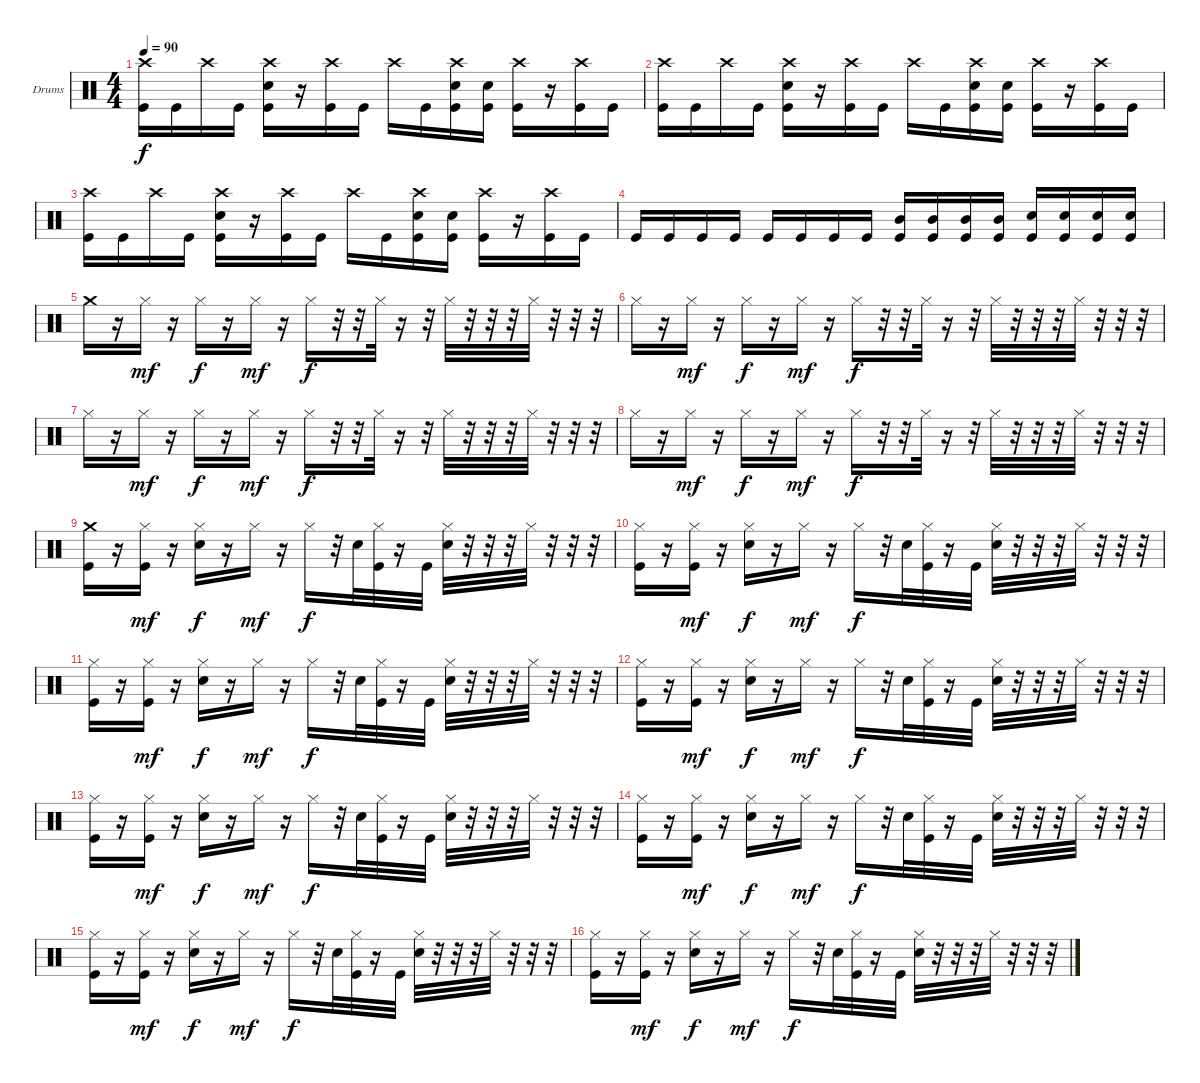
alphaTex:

\bracketExtendMode groupsimilarinstruments
\firstSystemTrackNameOrientation horizontal
\otherSystemsTrackNameOrientation horizontal
\track ("Ударная установка" "Drums") {instrument percussion}
\staff {score}
\articulation defaults
\ts (4 4)
\tempo 90
\clef neutral
\ks c
("Crash high (hit)" "Kick (hit)").16{dy f} "Kick (hit)".16 "Crash high (hit)".16 "Kick (hit)".16 ("Crash high (hit)" "Snare (hit) 2" "Kick (hit)").16 r.16 ("Crash high (hit)" "Kick (hit)").16 "Kick (hit)".16 "Crash high (hit)".16 "Kick (hit)".16 ("Crash high (hit)" "Kick (hit)" "Snare (hit) 2").16 ("Kick (hit)" "Snare (hit) 2").16 ("Crash high (hit)" "Kick (hit)").16 r.16 ("Crash high (hit)" "Kick (hit)").16 "Kick (hit)".16 |
("Crash high (hit)" "Kick (hit)").16 "Kick (hit)".16 "Crash high (hit)".16 "Kick (hit)".16 ("Crash high (hit)" "Snare (hit) 2" "Kick (hit)").16 r.16 ("Crash high (hit)" "Kick (hit)").16 "Kick (hit)".16 "Crash high (hit)".16 "Kick (hit)".16 ("Crash high (hit)" "Kick (hit)" "Snare (hit) 2").16 ("Kick (hit)" "Snare (hit) 2").16 ("Crash high (hit)" "Kick (hit)").16 r.16 ("Crash high (hit)" "Kick (hit)").16 "Kick (hit)".16 |
("Crash high (hit)" "Kick (hit)").16 "Kick (hit)".16 "Crash high (hit)".16 "Kick (hit)".16 ("Crash high (hit)" "Snare (hit) 2" "Kick (hit)").16 r.16 ("Crash high (hit)" "Kick (hit)").16 "Kick (hit)".16 "Crash high (hit)".16 "Kick (hit)".16 ("Crash high (hit)" "Kick (hit)" "Snare (hit) 2").16 ("Kick (hit)" "Snare (hit) 2").16 ("Crash high (hit)" "Kick (hit)").16 r.16 ("Crash high (hit)" "Kick (hit)").16 "Kick (hit)".16 |
"Kick (hit)".16 "Kick (hit)".16 "Kick (hit)".16 "Kick (hit)".16 "Kick (hit)".16 "Kick (hit)".16 "Kick (hit)".16 "Kick (hit)".16 ("Kick (hit)" "Mid Tom (hit)").16 ("Kick (hit)" "Mid Tom (hit)").16 ("Kick (hit)" "Mid Tom (hit)").16 ("Kick (hit)" "Mid Tom (hit)").16 ("Snare (hit) 2" "Kick (hit)").16 ("Kick (hit)" "Snare (hit) 2").16 ("Kick (hit)" "Snare (hit) 2").16 ("Kick (hit)" "Snare (hit) 2").16 |
"Crash medium (hit)".16 r.16 "Hi-Hat (closed)".16{dy mf} r.16 "Hi-Hat (closed)".16{dy f} r.16 "Hi-Hat (closed)".16{dy mf} r.16 "Hi-Hat (closed)".16{dy f} r.32 r.32 "Hi-Hat (closed)".32 r.16 r.32 "Hi-Hat (closed)".32 r.32 r.32 r.32 "Hi-Hat (closed)".32 r.32 r.32 r.32 |
"Hi-Hat (closed)".16 r.16 "Hi-Hat (closed)".16{dy mf} r.16 "Hi-Hat (closed)".16{dy f} r.16 "Hi-Hat (closed)".16{dy mf} r.16 "Hi-Hat (closed)".16{dy f} r.32 r.32 "Hi-Hat (closed)".32 r.16 r.32 "Hi-Hat (closed)".32 r.32 r.32 r.32 "Hi-Hat (closed)".32 r.32 r.32 r.32 |
"Hi-Hat (closed)".16 r.16 "Hi-Hat (closed)".16{dy mf} r.16 "Hi-Hat (closed)".16{dy f} r.16 "Hi-Hat (closed)".16{dy mf} r.16 "Hi-Hat (closed)".16{dy f} r.32 r.32 "Hi-Hat (closed)".32 r.16 r.32 "Hi-Hat (closed)".32 r.32 r.32 r.32 "Hi-Hat (closed)".32 r.32 r.32 r.32 |
"Hi-Hat (closed)".16 r.16 "Hi-Hat (closed)".16{dy mf} r.16 "Hi-Hat (closed)".16{dy f} r.16 "Hi-Hat (closed)".16{dy mf} r.16 "Hi-Hat (closed)".16{dy f} r.32 r.32 "Hi-Hat (closed)".32 r.16 r.32 "Hi-Hat (closed)".32 r.32 r.32 r.32 "Hi-Hat (closed)".32 r.32 r.32 r.32 |
("Crash medium (hit)" "Kick (hit)").16 r.16 ("Kick (hit)" "Hi-Hat (closed)").16{dy mf} r.16 ("Snare (hit) 2" "Hi-Hat (closed)").16{dy f} r.16 "Hi-Hat (closed)".16{dy mf} r.16 "Hi-Hat (closed)".16{dy f} r.32 "Snare (hit) 2".32 ("Kick (hit)" "Hi-Hat (closed)").32 r.16 "Kick (hit)".32 ("Snare (hit) 2" "Hi-Hat (closed)").32 r.32 r.32 r.32 "Hi-Hat (closed)".32 r.32 r.32 r.32 |
("Kick (hit)" "Hi-Hat (closed)").16 r.16 ("Kick (hit)" "Hi-Hat (closed)").16{dy mf} r.16 ("Snare (hit) 2" "Hi-Hat (closed)").16{dy f} r.16 "Hi-Hat (closed)".16{dy mf} r.16 "Hi-Hat (closed)".16{dy f} r.32 "Snare (hit) 2".32 ("Kick (hit)" "Hi-Hat (closed)").32 r.16 "Kick (hit)".32 ("Snare (hit) 2" "Hi-Hat (closed)").32 r.32 r.32 r.32 "Hi-Hat (closed)".32 r.32 r.32 r.32 |
("Kick (hit)" "Hi-Hat (closed)").16 r.16 ("Kick (hit)" "Hi-Hat (closed)").16{dy mf} r.16 ("Snare (hit) 2" "Hi-Hat (closed)").16{dy f} r.16 "Hi-Hat (closed)".16{dy mf} r.16 "Hi-Hat (closed)".16{dy f} r.32 "Snare (hit) 2".32 ("Kick (hit)" "Hi-Hat (closed)").32 r.16 "Kick (hit)".32 ("Snare (hit) 2" "Hi-Hat (closed)").32 r.32 r.32 r.32 "Hi-Hat (closed)".32 r.32 r.32 r.32 |
("Kick (hit)" "Hi-Hat (closed)").16 r.16 ("Kick (hit)" "Hi-Hat (closed)").16{dy mf} r.16 ("Snare (hit) 2" "Hi-Hat (closed)").16{dy f} r.16 "Hi-Hat (closed)".16{dy mf} r.16 "Hi-Hat (closed)".16{dy f} r.32 "Snare (hit) 2".32 ("Kick (hit)" "Hi-Hat (closed)").32 r.16 "Kick (hit)".32 ("Snare (hit) 2" "Hi-Hat (closed)").32 r.32 r.32 r.32 "Hi-Hat (closed)".32 r.32 r.32 r.32 |
("Kick (hit)" "Hi-Hat (closed)").16 r.16 ("Kick (hit)" "Hi-Hat (closed)").16{dy mf} r.16 ("Snare (hit) 2" "Hi-Hat (closed)").16{dy f} r.16 "Hi-Hat (closed)".16{dy mf} r.16 "Hi-Hat (closed)".16{dy f} r.32 "Snare (hit) 2".32 ("Kick (hit)" "Hi-Hat (closed)").32 r.16 "Kick (hit)".32 ("Snare (hit) 2" "Hi-Hat (closed)").32 r.32 r.32 r.32 "Hi-Hat (closed)".32 r.32 r.32 r.32 |
("Kick (hit)" "Hi-Hat (closed)").16 r.16 ("Kick (hit)" "Hi-Hat (closed)").16{dy mf} r.16 ("Snare (hit) 2" "Hi-Hat (closed)").16{dy f} r.16 "Hi-Hat (closed)".16{dy mf} r.16 "Hi-Hat (closed)".16{dy f} r.32 "Snare (hit) 2".32 ("Kick (hit)" "Hi-Hat (closed)").32 r.16 "Kick (hit)".32 ("Snare (hit) 2" "Hi-Hat (closed)").32 r.32 r.32 r.32 "Hi-Hat (closed)".32 r.32 r.32 r.32 |
("Kick (hit)" "Hi-Hat (closed)").16 r.16 ("Kick (hit)" "Hi-Hat (closed)").16{dy mf} r.16 ("Snare (hit) 2" "Hi-Hat (closed)").16{dy f} r.16 "Hi-Hat (closed)".16{dy mf} r.16 "Hi-Hat (closed)".16{dy f} r.32 "Snare (hit) 2".32 ("Kick (hit)" "Hi-Hat (closed)").32 r.16 "Kick (hit)".32 ("Snare (hit) 2" "Hi-Hat (closed)").32 r.32 r.32 r.32 "Hi-Hat (closed)".32 r.32 r.32 r.32 |
("Kick (hit)" "Hi-Hat (closed)").16 r.16 ("Kick (hit)" "Hi-Hat (closed)").16{dy mf} r.16 ("Snare (hit) 2" "Hi-Hat (closed)").16{dy f} r.16 "Hi-Hat (closed)".16{dy mf} r.16 "Hi-Hat (closed)".16{dy f} r.32 "Snare (hit) 2".32 ("Kick (hit)" "Hi-Hat (closed)").32 r.16 "Kick (hit)".32 ("Snare (hit) 2" "Hi-Hat (closed)").32 r.32 r.32 r.32 "Hi-Hat (closed)".32 r.32 r.32 r.32
